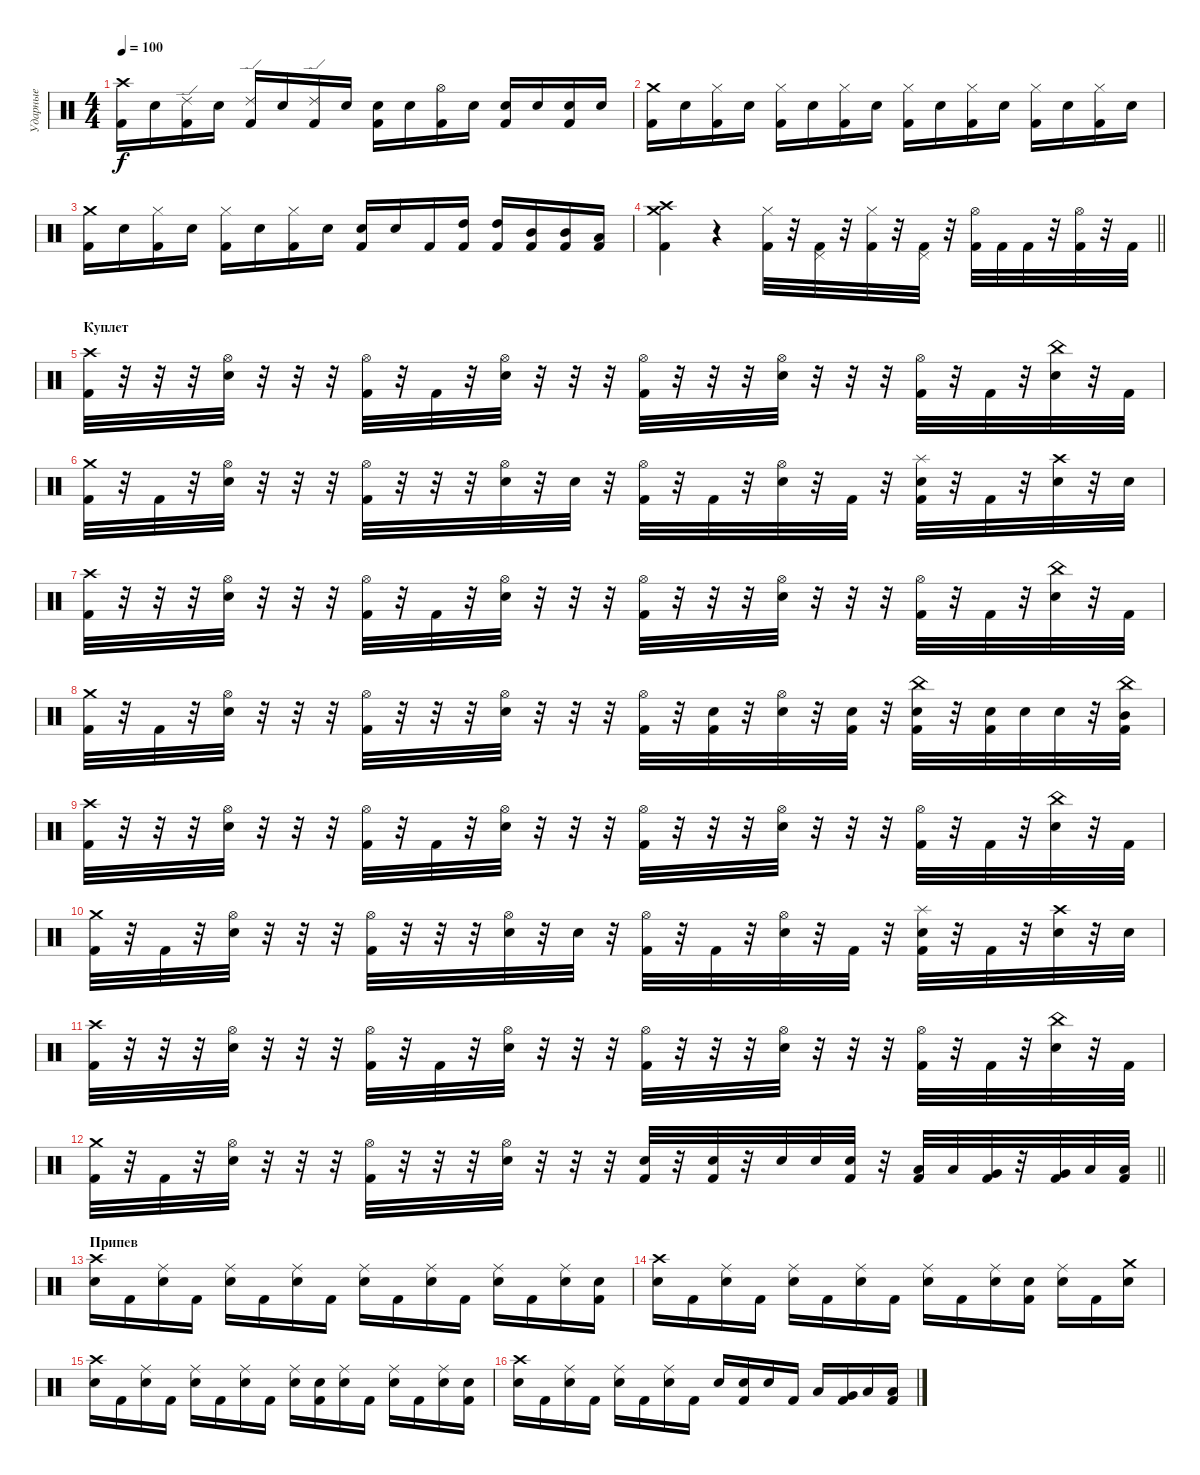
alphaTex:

\track ("Ударные" "Ударные") {instrument percussion}
\staff {score}
\articulation defaults
\ts (4 4)
\tempo 100
\clef neutral
\ks c
("Crash high (hit)" "Kick (hit) 2").16{dy f} "Snare (hit) 2".16 ("Ride (edge) 2" "Kick (hit) 2").16 "Snare (hit) 2".16 ("Ride (edge) 2" "Kick (hit) 2").16 "Snare (hit) 2".16 ("Ride (edge) 2" "Kick (hit) 2").16 "Snare (hit) 2".16 ("Snare (hit) 2" "Kick (hit) 2").16 "Snare (hit) 2".16 ("Hi-Hat (open)" "Kick (hit) 2").16 "Snare (hit) 2".16 ("Snare (hit) 2" "Kick (hit) 2").16 "Snare (hit) 2".16 ("Snare (hit) 2" "Kick (hit) 2").16 "Snare (hit) 2".16 |
("Crash medium (hit)" "Kick (hit) 2").16 "Snare (hit) 2".16 ("Hi-Hat (closed)" "Kick (hit) 2").16 "Snare (hit) 2".16 ("Hi-Hat (closed)" "Kick (hit) 2").16 "Snare (hit) 2".16 ("Hi-Hat (closed)" "Kick (hit) 2").16 "Snare (hit) 2".16 ("Hi-Hat (closed)" "Kick (hit) 2").16 "Snare (hit) 2".16 ("Hi-Hat (closed)" "Kick (hit) 2").16 "Snare (hit) 2".16 ("Hi-Hat (closed)" "Kick (hit) 2").16 "Snare (hit) 2".16 ("Hi-Hat (closed)" "Kick (hit) 2").16 "Snare (hit) 2".16 |
("Crash medium (hit)" "Kick (hit) 2").16 "Snare (hit) 2".16 ("Hi-Hat (closed)" "Kick (hit) 2").16 "Snare (hit) 2".16 ("Hi-Hat (closed)" "Kick (hit) 2").16 "Snare (hit) 2".16 ("Hi-Hat (closed)" "Kick (hit) 2").16 "Snare (hit) 2".16 ("Snare (hit) 2" "Kick (hit) 2").16 "Snare (hit) 2".16 "Kick (hit) 2".16 ("High Tom (hit)" "Kick (hit) 2").16 ("High Tom (hit)" "Kick (hit) 2").16 ("Mid Tom (hit)" "Kick (hit) 2").16 ("Mid Tom (hit)" "Kick (hit) 2").16 ("Low Tom (hit)" "Kick (hit) 2").16 |
\barLineRight lightlight
("Crash medium (hit)" "Crash high (hit)" "Kick (hit) 2").4 r.4 ("Hi-Hat (closed)" "Kick (hit) 2").32 r.32 ("Pedal Hi-Hat (hit)" "Kick (hit) 2").32 r.32 ("Hi-Hat (closed)" "Kick (hit) 2").32 r.32 ("Pedal Hi-Hat (hit)" "Kick (hit) 2").32 r.32 ("Hi-Hat (open)" "Kick (hit) 2").32 "Kick (hit) 2".32 "Kick (hit) 2".32 r.32 ("Hi-Hat (open)" "Kick (hit) 2").32 r.32 "Kick (hit) 2".32 |
\section ("" "Куплет")
("Crash high (hit)" "Kick (hit) 2").32 r.32 r.32 r.32 ("Hi-Hat (open)" "Snare (hit) 2").32 r.32 r.32 r.32 ("Hi-Hat (open)" "Kick (hit) 2").32 r.32 "Kick (hit) 2".32 r.32 ("Hi-Hat (open)" "Snare (hit) 2").32 r.32 r.32 r.32 ("Hi-Hat (open)" "Kick (hit) 2").32 r.32 r.32 r.32 ("Hi-Hat (open)" "Snare (hit) 2").32 r.32 r.32 r.32 ("Hi-Hat (open)" "Kick (hit) 2").32 r.32 "Kick (hit) 2".32 r.32 ("China (hit)" "Snare (hit) 2").32 r.32 "Kick (hit) 2".32 |
("Crash medium (hit)" "Kick (hit) 2").32 r.32 "Kick (hit) 2".32 r.32 ("Hi-Hat (open)" "Snare (hit) 2").32 r.32 r.32 r.32 ("Hi-Hat (open)" "Kick (hit) 2").32 r.32 r.32 r.32 ("Hi-Hat (open)" "Snare (hit) 2").32 r.32 "Snare (hit) 2".32 r.32 ("Hi-Hat (open)" "Kick (hit) 2").32 r.32 "Kick (hit) 2".32 r.32 ("Hi-Hat (open)" "Snare (hit) 2").32 r.32 "Kick (hit) 2".32 r.32 ("Splash (hit)" "Snare (hit) 2" "Kick (hit) 2").32 r.32 "Kick (hit) 2".32 r.32 ("Crash high (hit)" "Snare (hit) 2").32 r.32 "Snare (hit) 2".32 |
("Crash high (hit)" "Kick (hit) 2").32 r.32 r.32 r.32 ("Hi-Hat (open)" "Snare (hit) 2").32 r.32 r.32 r.32 ("Hi-Hat (open)" "Kick (hit) 2").32 r.32 "Kick (hit) 2".32 r.32 ("Hi-Hat (open)" "Snare (hit) 2").32 r.32 r.32 r.32 ("Hi-Hat (open)" "Kick (hit) 2").32 r.32 r.32 r.32 ("Hi-Hat (open)" "Snare (hit) 2").32 r.32 r.32 r.32 ("Hi-Hat (open)" "Kick (hit) 2").32 r.32 "Kick (hit) 2".32 r.32 ("China (hit)" "Snare (hit) 2").32 r.32 "Kick (hit) 2".32 |
("Crash medium (hit)" "Kick (hit) 2").32 r.32 "Kick (hit) 2".32 r.32 ("Hi-Hat (open)" "Snare (hit) 2").32 r.32 r.32 r.32 ("Hi-Hat (open)" "Kick (hit) 2").32 r.32 r.32 r.32 ("Hi-Hat (open)" "Snare (hit) 2").32 r.32 r.32 r.32 ("Hi-Hat (open)" "Kick (hit) 2").32 r.32 ("Snare (hit) 2" "Kick (hit) 2").32 r.32 ("Hi-Hat (open)" "Snare (hit) 2").32 r.32 ("Snare (hit) 2" "Kick (hit) 2").32 r.32 ("China (hit)" "Snare (hit) 2" "Kick (hit) 2").32 r.32 ("Snare (hit) 2" "Kick (hit) 2").32 "Snare (hit) 2".32 "Snare (hit) 2".32 r.32 ("China (hit)" "Mid Tom (hit)" "Kick (hit) 2").32 |
("Crash high (hit)" "Kick (hit) 2").32 r.32 r.32 r.32 ("Hi-Hat (open)" "Snare (hit) 2").32 r.32 r.32 r.32 ("Hi-Hat (open)" "Kick (hit) 2").32 r.32 "Kick (hit) 2".32 r.32 ("Hi-Hat (open)" "Snare (hit) 2").32 r.32 r.32 r.32 ("Hi-Hat (open)" "Kick (hit) 2").32 r.32 r.32 r.32 ("Hi-Hat (open)" "Snare (hit) 2").32 r.32 r.32 r.32 ("Hi-Hat (open)" "Kick (hit) 2").32 r.32 "Kick (hit) 2".32 r.32 ("China (hit)" "Snare (hit) 2").32 r.32 "Kick (hit) 2".32 |
("Crash medium (hit)" "Kick (hit) 2").32 r.32 "Kick (hit) 2".32 r.32 ("Hi-Hat (open)" "Snare (hit) 2").32 r.32 r.32 r.32 ("Hi-Hat (open)" "Kick (hit) 2").32 r.32 r.32 r.32 ("Hi-Hat (open)" "Snare (hit) 2").32 r.32 "Snare (hit) 2".32 r.32 ("Hi-Hat (open)" "Kick (hit) 2").32 r.32 "Kick (hit) 2".32 r.32 ("Hi-Hat (open)" "Snare (hit) 2").32 r.32 "Kick (hit) 2".32 r.32 ("Splash (hit)" "Snare (hit) 2" "Kick (hit) 2").32 r.32 "Kick (hit) 2".32 r.32 ("Crash high (hit)" "Snare (hit) 2").32 r.32 "Snare (hit) 2".32 |
("Crash high (hit)" "Kick (hit) 2").32 r.32 r.32 r.32 ("Hi-Hat (open)" "Snare (hit) 2").32 r.32 r.32 r.32 ("Hi-Hat (open)" "Kick (hit) 2").32 r.32 "Kick (hit) 2".32 r.32 ("Hi-Hat (open)" "Snare (hit) 2").32 r.32 r.32 r.32 ("Hi-Hat (open)" "Kick (hit) 2").32 r.32 r.32 r.32 ("Hi-Hat (open)" "Snare (hit) 2").32 r.32 r.32 r.32 ("Hi-Hat (open)" "Kick (hit) 2").32 r.32 "Kick (hit) 2".32 r.32 ("China (hit)" "Snare (hit) 2").32 r.32 "Kick (hit) 2".32 |
\barLineRight lightlight
("Crash medium (hit)" "Kick (hit) 2").32 r.32 "Kick (hit) 2".32 r.32 ("Hi-Hat (open)" "Snare (hit) 2").32 r.32 r.32 r.32 ("Hi-Hat (open)" "Kick (hit) 2").32 r.32 r.32 r.32 ("Hi-Hat (open)" "Snare (hit) 2").32 r.32 r.32 r.32 ("Snare (hit) 2" "Kick (hit) 2").32 r.32 ("Snare (hit) 2" "Kick (hit) 2").32 r.32 "Snare (hit) 2".32 "Snare (hit) 2".32 ("Snare (hit) 2" "Kick (hit) 2").32 r.32 ("Low Tom (hit)" "Kick (hit) 2").32 "Low Tom (hit)".32 ("Very Low Tom (hit)" "Kick (hit) 2").32 r.32 ("Very Low Tom (hit)" "Kick (hit) 2").32 "Low Floor Tom (hit)".32 ("Low Floor Tom (hit)" "Kick (hit) 2").32 |
\section ("" "Припев")
("Crash high (hit)" "Snare (hit) 2").16 "Kick (hit) 2".16 ("Ride (middle)" "Snare (hit) 2").16 "Kick (hit) 2".16 ("Ride (middle)" "Snare (hit) 2").16 "Kick (hit) 2".16 ("Ride (middle)" "Snare (hit) 2").16 "Kick (hit) 2".16 ("Ride (middle)" "Snare (hit) 2").16 "Kick (hit) 2".16 ("Ride (middle)" "Snare (hit) 2").16 "Kick (hit) 2".16 ("Ride (middle)" "Snare (hit) 2").16 "Kick (hit) 2".16 ("Ride (middle)" "Snare (hit) 2").16 ("Snare (hit) 2" "Kick (hit) 2").16 |
("Crash high (hit)" "Snare (hit) 2").16 "Kick (hit) 2".16 ("Ride (middle)" "Snare (hit) 2").16 "Kick (hit) 2".16 ("Ride (middle)" "Snare (hit) 2").16 "Kick (hit) 2".16 ("Ride (middle)" "Snare (hit) 2").16 "Kick (hit) 2".16 ("Ride (middle)" "Snare (hit) 2").16 "Kick (hit) 2".16 ("Ride (middle)" "Snare (hit) 2").16 ("Snare (hit) 2" "Kick (hit) 2").16 ("Ride (middle)" "Snare (hit) 2").16 "Kick (hit) 2".16 ("Crash medium (hit)" "Snare (hit) 2").16 |
("Crash high (hit)" "Snare (hit) 2").16 "Kick (hit) 2".16 ("Ride (middle)" "Snare (hit) 2").16 "Kick (hit) 2".16 ("Ride (middle)" "Snare (hit) 2").16 "Kick (hit) 2".16 ("Ride (middle)" "Snare (hit) 2").16 "Kick (hit) 2".16 ("Ride (middle)" "Snare (hit) 2").16 ("Snare (hit) 2" "Kick (hit) 2").16 ("Ride (middle)" "Snare (hit) 2").16 "Kick (hit) 2".16 ("Ride (middle)" "Snare (hit) 2").16 "Kick (hit) 2".16 ("Ride (middle)" "Snare (hit) 2").16 ("Snare (hit) 2" "Kick (hit) 2").16 |
("Crash high (hit)" "Snare (hit) 2").16 "Kick (hit) 2".16 ("Ride (middle)" "Snare (hit) 2").16 "Kick (hit) 2".16 ("Ride (middle)" "Snare (hit) 2").16 "Kick (hit) 2".16 ("Ride (middle)" "Snare (hit) 2").16 "Kick (hit) 2".16 "Snare (hit) 2".16 ("Snare (hit) 2" "Kick (hit) 2").16 "Snare (hit) 2".16 "Kick (hit) 2".16 "Low Tom (hit)".16 ("Very Low Tom (hit)" "Kick (hit) 2").16 "Low Tom (hit)".16 ("Low Floor Tom (hit)" "Kick (hit) 2").16
